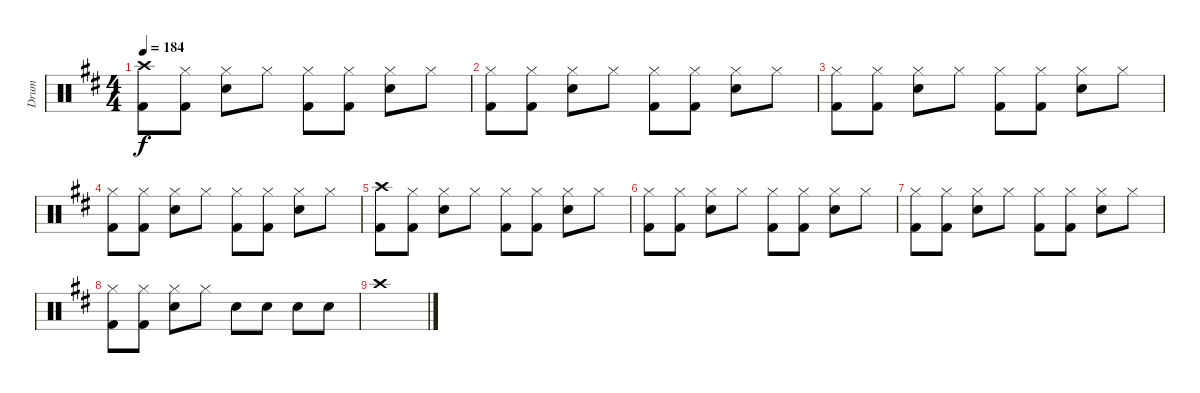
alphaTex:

\track ("Drum" "Drum") {instrument percussion}
\staff {score}
\articulation defaults
\ts (4 4)
\tempo 184
\clef neutral
\ks d
("Crash high (hit)" "Kick (hit) 2").8{dy f} ("Hi-Hat (closed)" "Kick (hit) 2").8 ("Hi-Hat (closed)" "Electric Snare (hit)").8 "Hi-Hat (closed)".8 ("Hi-Hat (closed)" "Kick (hit) 2").8 ("Hi-Hat (closed)" "Kick (hit) 2").8 ("Hi-Hat (closed)" "Electric Snare (hit)").8 "Hi-Hat (closed)".8 |
("Hi-Hat (closed)" "Kick (hit) 2").8 ("Hi-Hat (closed)" "Kick (hit) 2").8 ("Hi-Hat (closed)" "Electric Snare (hit)").8 "Hi-Hat (closed)".8 ("Hi-Hat (closed)" "Kick (hit) 2").8 ("Hi-Hat (closed)" "Kick (hit) 2").8 ("Hi-Hat (closed)" "Electric Snare (hit)").8 "Hi-Hat (closed)".8 |
("Hi-Hat (closed)" "Kick (hit) 2").8 ("Hi-Hat (closed)" "Kick (hit) 2").8 ("Hi-Hat (closed)" "Electric Snare (hit)").8 "Hi-Hat (closed)".8 ("Hi-Hat (closed)" "Kick (hit) 2").8 ("Hi-Hat (closed)" "Kick (hit) 2").8 ("Hi-Hat (closed)" "Electric Snare (hit)").8 "Hi-Hat (closed)".8 |
("Hi-Hat (closed)" "Kick (hit) 2").8 ("Hi-Hat (closed)" "Kick (hit) 2").8 ("Hi-Hat (closed)" "Electric Snare (hit)").8 "Hi-Hat (closed)".8 ("Hi-Hat (closed)" "Kick (hit) 2").8 ("Hi-Hat (closed)" "Kick (hit) 2").8 ("Hi-Hat (closed)" "Electric Snare (hit)").8 "Hi-Hat (closed)".8 |
("Crash high (hit)" "Kick (hit) 2").8 ("Hi-Hat (closed)" "Kick (hit) 2").8 ("Hi-Hat (closed)" "Electric Snare (hit)").8 "Hi-Hat (closed)".8 ("Hi-Hat (closed)" "Kick (hit) 2").8 ("Hi-Hat (closed)" "Kick (hit) 2").8 ("Hi-Hat (closed)" "Electric Snare (hit)").8 "Hi-Hat (closed)".8 |
("Hi-Hat (closed)" "Kick (hit) 2").8 ("Hi-Hat (closed)" "Kick (hit) 2").8 ("Hi-Hat (closed)" "Electric Snare (hit)").8 "Hi-Hat (closed)".8 ("Hi-Hat (closed)" "Kick (hit) 2").8 ("Hi-Hat (closed)" "Kick (hit) 2").8 ("Hi-Hat (closed)" "Electric Snare (hit)").8 "Hi-Hat (closed)".8 |
("Hi-Hat (closed)" "Kick (hit) 2").8 ("Hi-Hat (closed)" "Kick (hit) 2").8 ("Hi-Hat (closed)" "Electric Snare (hit)").8 "Hi-Hat (closed)".8 ("Hi-Hat (closed)" "Kick (hit) 2").8 ("Hi-Hat (closed)" "Kick (hit) 2").8 ("Hi-Hat (closed)" "Electric Snare (hit)").8 "Hi-Hat (closed)".8 |
("Hi-Hat (closed)" "Kick (hit) 2").8 ("Hi-Hat (closed)" "Kick (hit) 2").8 ("Hi-Hat (closed)" "Electric Snare (hit)").8 "Hi-Hat (closed)".8 "Electric Snare (hit)".8 "Electric Snare (hit)".8 "Electric Snare (hit)".8 "Electric Snare (hit)".8 |
"Crash high (hit)".1
